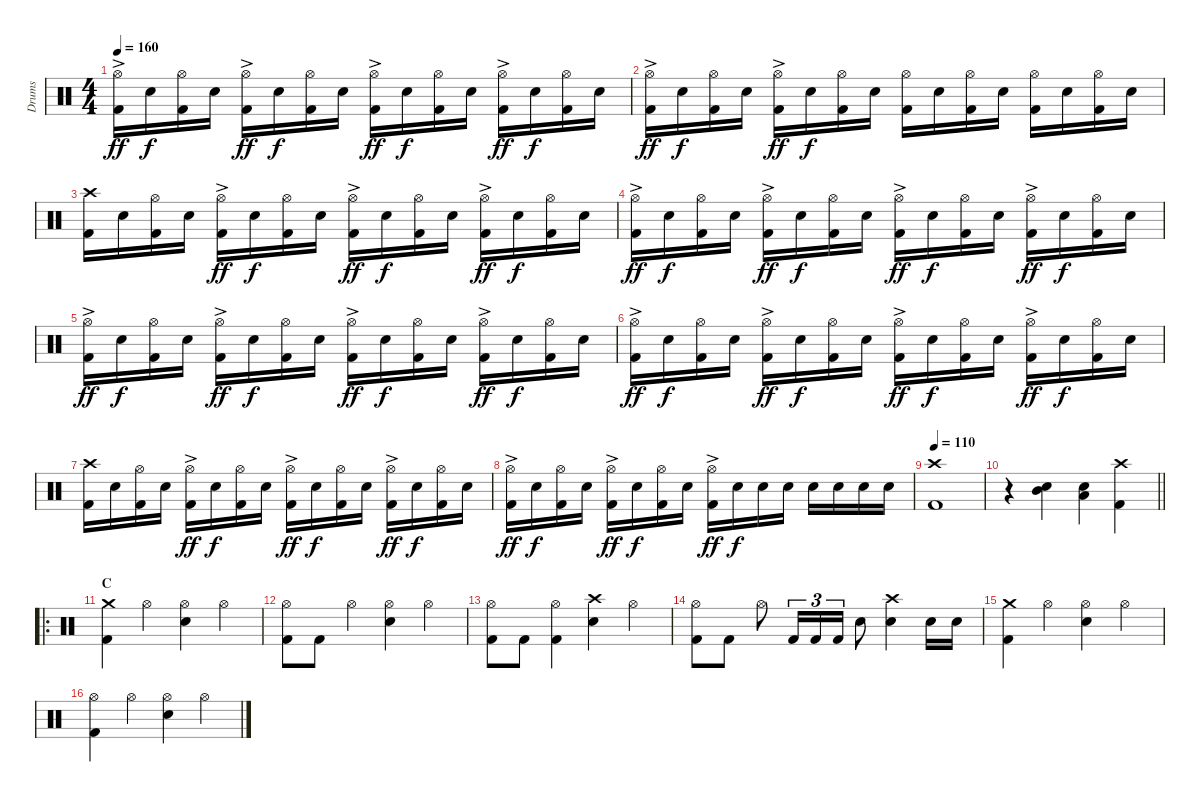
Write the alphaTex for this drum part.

\track ("Drums" "Drums") {instrument percussion}
\staff {score}
\articulation defaults
\ts (4 4)
\tempo 160
\clef neutral
\ks c
("Hi-Hat (open)"{ac} "Kick (hit) 2").16{dy ff} "Snare (hit) 2".16{dy f} ("Hi-Hat (open)" "Kick (hit) 2").16 "Snare (hit) 2".16 ("Hi-Hat (open)"{ac} "Kick (hit) 2").16{dy ff} "Snare (hit) 2".16{dy f} ("Hi-Hat (open)" "Kick (hit) 2").16 "Snare (hit) 2".16 ("Hi-Hat (open)"{ac} "Kick (hit) 2").16{dy ff} "Snare (hit) 2".16{dy f} ("Hi-Hat (open)" "Kick (hit) 2").16 "Snare (hit) 2".16 ("Hi-Hat (open)"{ac} "Kick (hit) 2").16{dy ff} "Snare (hit) 2".16{dy f} ("Hi-Hat (open)" "Kick (hit) 2").16 "Snare (hit) 2".16 |
("Hi-Hat (open)"{ac} "Kick (hit) 2").16{dy ff} "Snare (hit) 2".16{dy f} ("Hi-Hat (open)" "Kick (hit) 2").16 "Snare (hit) 2".16 ("Hi-Hat (open)"{ac} "Kick (hit) 2").16{dy ff} "Snare (hit) 2".16{dy f} ("Hi-Hat (open)" "Kick (hit) 2").16 "Snare (hit) 2".16 ("Hi-Hat (open)" "Kick (hit) 2").16 "Snare (hit) 2".16 ("Hi-Hat (open)" "Kick (hit) 2").16 "Snare (hit) 2".16 ("Hi-Hat (open)" "Kick (hit) 2").16 "Snare (hit) 2".16 ("Hi-Hat (open)" "Kick (hit) 2").16 "Snare (hit) 2".16 |
("Crash high (hit)" "Kick (hit) 2").16 "Snare (hit) 2".16 ("Hi-Hat (open)" "Kick (hit) 2").16 "Snare (hit) 2".16 ("Hi-Hat (open)"{ac} "Kick (hit) 2").16{dy ff} "Snare (hit) 2".16{dy f} ("Hi-Hat (open)" "Kick (hit) 2").16 "Snare (hit) 2".16 ("Hi-Hat (open)"{ac} "Kick (hit) 2").16{dy ff} "Snare (hit) 2".16{dy f} ("Hi-Hat (open)" "Kick (hit) 2").16 "Snare (hit) 2".16 ("Hi-Hat (open)"{ac} "Kick (hit) 2").16{dy ff} "Snare (hit) 2".16{dy f} ("Hi-Hat (open)" "Kick (hit) 2").16 "Snare (hit) 2".16 |
("Hi-Hat (open)"{ac} "Kick (hit) 2").16{dy ff} "Snare (hit) 2".16{dy f} ("Hi-Hat (open)" "Kick (hit) 2").16 "Snare (hit) 2".16 ("Hi-Hat (open)"{ac} "Kick (hit) 2").16{dy ff} "Snare (hit) 2".16{dy f} ("Hi-Hat (open)" "Kick (hit) 2").16 "Snare (hit) 2".16 ("Hi-Hat (open)"{ac} "Kick (hit) 2").16{dy ff} "Snare (hit) 2".16{dy f} ("Hi-Hat (open)" "Kick (hit) 2").16 "Snare (hit) 2".16 ("Hi-Hat (open)"{ac} "Kick (hit) 2").16{dy ff} "Snare (hit) 2".16{dy f} ("Hi-Hat (open)" "Kick (hit) 2").16 "Snare (hit) 2".16 |
("Hi-Hat (open)"{ac} "Kick (hit) 2").16{dy ff} "Snare (hit) 2".16{dy f} ("Hi-Hat (open)" "Kick (hit) 2").16 "Snare (hit) 2".16 ("Hi-Hat (open)"{ac} "Kick (hit) 2").16{dy ff} "Snare (hit) 2".16{dy f} ("Hi-Hat (open)" "Kick (hit) 2").16 "Snare (hit) 2".16 ("Hi-Hat (open)"{ac} "Kick (hit) 2").16{dy ff} "Snare (hit) 2".16{dy f} ("Hi-Hat (open)" "Kick (hit) 2").16 "Snare (hit) 2".16 ("Hi-Hat (open)"{ac} "Kick (hit) 2").16{dy ff} "Snare (hit) 2".16{dy f} ("Hi-Hat (open)" "Kick (hit) 2").16 "Snare (hit) 2".16 |
("Hi-Hat (open)"{ac} "Kick (hit) 2").16{dy ff} "Snare (hit) 2".16{dy f} ("Hi-Hat (open)" "Kick (hit) 2").16 "Snare (hit) 2".16 ("Hi-Hat (open)"{ac} "Kick (hit) 2").16{dy ff} "Snare (hit) 2".16{dy f} ("Hi-Hat (open)" "Kick (hit) 2").16 "Snare (hit) 2".16 ("Hi-Hat (open)"{ac} "Kick (hit) 2").16{dy ff} "Snare (hit) 2".16{dy f} ("Hi-Hat (open)" "Kick (hit) 2").16 "Snare (hit) 2".16 ("Hi-Hat (open)"{ac} "Kick (hit) 2").16{dy ff} "Snare (hit) 2".16{dy f} ("Hi-Hat (open)" "Kick (hit) 2").16 "Snare (hit) 2".16 |
("Crash high (hit)" "Kick (hit) 2").16 "Snare (hit) 2".16 ("Hi-Hat (open)" "Kick (hit) 2").16 "Snare (hit) 2".16 ("Hi-Hat (open)"{ac} "Kick (hit) 2").16{dy ff} "Snare (hit) 2".16{dy f} ("Hi-Hat (open)" "Kick (hit) 2").16 "Snare (hit) 2".16 ("Hi-Hat (open)"{ac} "Kick (hit) 2").16{dy ff} "Snare (hit) 2".16{dy f} ("Hi-Hat (open)" "Kick (hit) 2").16 "Snare (hit) 2".16 ("Hi-Hat (open)"{ac} "Kick (hit) 2").16{dy ff} "Snare (hit) 2".16{dy f} ("Hi-Hat (open)" "Kick (hit) 2").16 "Snare (hit) 2".16 |
("Hi-Hat (open)"{ac} "Kick (hit) 2").16{dy ff} "Snare (hit) 2".16{dy f} ("Hi-Hat (open)" "Kick (hit) 2").16 "Snare (hit) 2".16 ("Hi-Hat (open)"{ac} "Kick (hit) 2").16{dy ff} "Snare (hit) 2".16{dy f} ("Hi-Hat (open)" "Kick (hit) 2").16 "Snare (hit) 2".16 ("Hi-Hat (open)"{ac} "Kick (hit) 2").16{dy ff} "Snare (hit) 2".16{dy f} "Snare (hit) 2".16 "Snare (hit) 2".16 "Snare (hit) 2".16 "Snare (hit) 2".16 "Snare (hit) 2".16 "Snare (hit) 2".16 |
\tempo 110
("Crash high (hit)" "Kick (hit) 2").1 |
\barLineRight lightlight
r.4 ("Mid Tom (hit)" "Snare (hit) 2").4 ("Low Tom (hit)" "Snare (hit) 2").4 ("Crash high (hit)" "Kick (hit) 2").4 |
\ro
\section ("" "C")
("Crash medium (hit)" "Kick (hit) 2").4 "Hi-Hat (open)".4 ("Hi-Hat (open)" "Snare (hit) 2").4 "Hi-Hat (open)".4 |
("Hi-Hat (open)" "Kick (hit) 2").8 "Kick (hit) 2".8 "Hi-Hat (open)".4 ("Hi-Hat (open)" "Snare (hit) 2").4 "Hi-Hat (open)".4 |
("Hi-Hat (open)" "Kick (hit) 2").8 "Kick (hit) 2".8 ("Hi-Hat (open)" "Kick (hit) 2").4 ("Crash high (hit)" "Snare (hit) 2").4 "Hi-Hat (open)".4 |
("Hi-Hat (open)" "Kick (hit) 2").8 "Kick (hit) 2".8 "Hi-Hat (open)".8 "Kick (hit) 2".16{tu (3 2)} "Kick (hit) 2".16{tu (3 2)} "Kick (hit) 2".16{tu (3 2)} "Snare (hit) 2".8 ("Crash high (hit)" "Snare (hit) 2").4 "Snare (hit) 2".16 "Snare (hit) 2".16 |
("Crash medium (hit)" "Kick (hit) 2").4 "Hi-Hat (open)".4 ("Hi-Hat (open)" "Snare (hit) 2").4 "Hi-Hat (open)".4 |
("Hi-Hat (open)" "Kick (hit) 2").4 "Hi-Hat (open)".4 ("Hi-Hat (open)" "Snare (hit) 2").4 "Hi-Hat (open)".4
